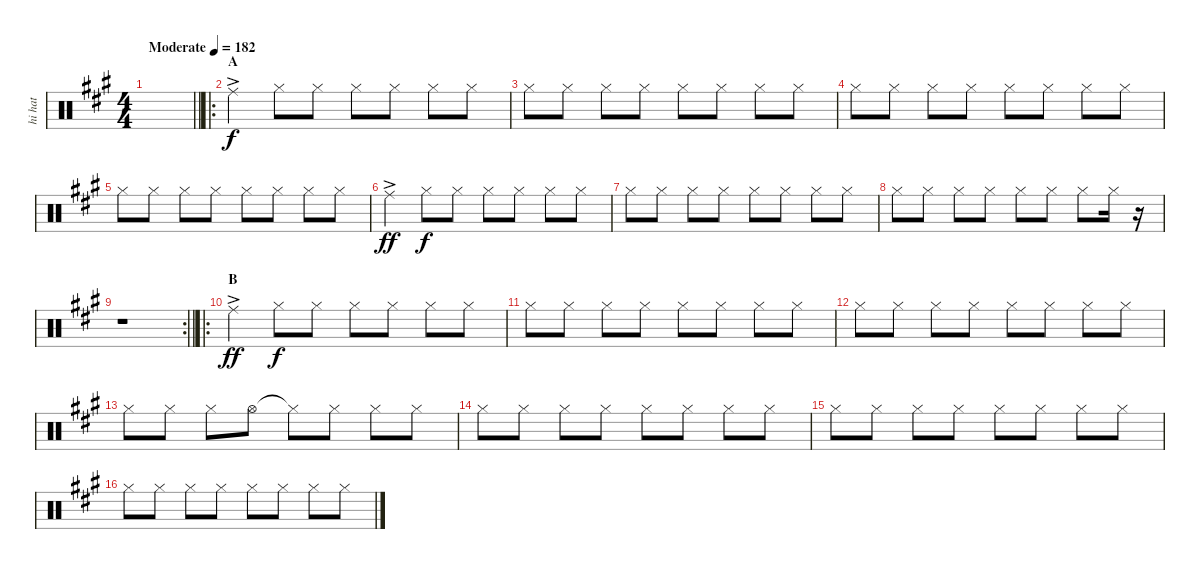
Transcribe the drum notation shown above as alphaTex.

\track ("hi hat" "hi hat") {instrument percussion}
\staff {score}
\articulation defaults
\ts (4 4)
\tempo (182 "Moderate")
\clef neutral
\barLineRight lightlight
\ks f#minor
|
\ro
\section ("" "A")
"Ride (middle)"{ac}.4 "Hi-Hat (closed)".8{dy f} "Hi-Hat (closed)".8 "Hi-Hat (closed)".8 "Hi-Hat (closed)".8 "Hi-Hat (closed)".8 "Hi-Hat (closed)".8 |
"Hi-Hat (closed)".8 "Hi-Hat (closed)".8 "Hi-Hat (closed)".8 "Hi-Hat (closed)".8 "Hi-Hat (closed)".8 "Hi-Hat (closed)".8 "Hi-Hat (closed)".8 "Hi-Hat (closed)".8 |
"Hi-Hat (closed)".8 "Hi-Hat (closed)".8 "Hi-Hat (closed)".8 "Hi-Hat (closed)".8 "Hi-Hat (closed)".8 "Hi-Hat (closed)".8 "Hi-Hat (closed)".8 "Hi-Hat (closed)".8 |
"Hi-Hat (closed)".8 "Hi-Hat (closed)".8 "Hi-Hat (closed)".8 "Hi-Hat (closed)".8 "Hi-Hat (closed)".8 "Hi-Hat (closed)".8 "Hi-Hat (closed)".8 "Hi-Hat (closed)".8 |
"Ride (middle)"{ac}.4{dy ff} "Hi-Hat (closed)".8{dy f} "Hi-Hat (closed)".8 "Hi-Hat (closed)".8 "Hi-Hat (closed)".8 "Hi-Hat (closed)".8 "Hi-Hat (closed)".8 |
"Hi-Hat (closed)".8 "Hi-Hat (closed)".8 "Hi-Hat (closed)".8 "Hi-Hat (closed)".8 "Hi-Hat (closed)".8 "Hi-Hat (closed)".8 "Hi-Hat (closed)".8 "Hi-Hat (closed)".8 |
"Hi-Hat (closed)".8 "Hi-Hat (closed)".8 "Hi-Hat (closed)".8 "Hi-Hat (closed)".8 "Hi-Hat (closed)".8 "Hi-Hat (closed)".8 "Hi-Hat (closed)".8 "Hi-Hat (closed)".16 r.16 |
\rc 2
\barLineRight lightlight
r.1 |
\ro
\section ("" "B")
"Ride (middle)"{ac}.4{dy ff} "Hi-Hat (closed)".8{dy f} "Hi-Hat (closed)".8 "Hi-Hat (closed)".8 "Hi-Hat (closed)".8 "Hi-Hat (closed)".8 "Hi-Hat (closed)".8 |
"Hi-Hat (closed)".8 "Hi-Hat (closed)".8 "Hi-Hat (closed)".8 "Hi-Hat (closed)".8 "Hi-Hat (closed)".8 "Hi-Hat (closed)".8 "Hi-Hat (closed)".8 "Hi-Hat (closed)".8 |
"Hi-Hat (closed)".8 "Hi-Hat (closed)".8 "Hi-Hat (closed)".8 "Hi-Hat (closed)".8 "Hi-Hat (closed)".8 "Hi-Hat (closed)".8 "Hi-Hat (closed)".8 "Hi-Hat (closed)".8 |
"Hi-Hat (closed)".8 "Hi-Hat (closed)".8 "Hi-Hat (closed)".8 "Hi-Hat (open)".8 "Hi-Hat (closed)"{t}.8 "Hi-Hat (closed)".8 "Hi-Hat (closed)".8 "Hi-Hat (closed)".8 |
"Hi-Hat (closed)".8 "Hi-Hat (closed)".8 "Hi-Hat (closed)".8 "Hi-Hat (closed)".8 "Hi-Hat (closed)".8 "Hi-Hat (closed)".8 "Hi-Hat (closed)".8 "Hi-Hat (closed)".8 |
"Hi-Hat (closed)".8 "Hi-Hat (closed)".8 "Hi-Hat (closed)".8 "Hi-Hat (closed)".8 "Hi-Hat (closed)".8 "Hi-Hat (closed)".8 "Hi-Hat (closed)".8 "Hi-Hat (closed)".8 |
"Hi-Hat (closed)".8 "Hi-Hat (closed)".8 "Hi-Hat (closed)".8 "Hi-Hat (closed)".8 "Hi-Hat (closed)".8 "Hi-Hat (closed)".8 "Hi-Hat (closed)".8 "Hi-Hat (closed)".8
